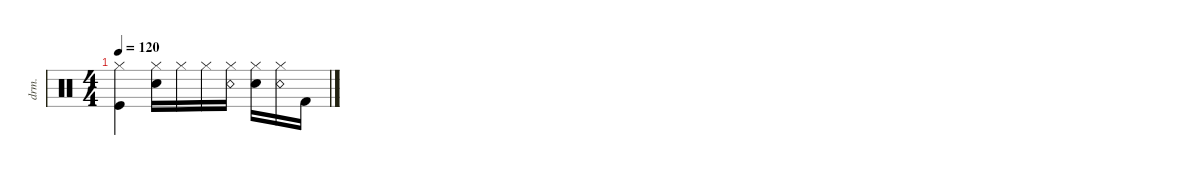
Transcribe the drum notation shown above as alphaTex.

\defaultSystemsLayout 4
\hideDynamics
\bracketExtendMode nobrackets
\otherSystemsTrackNameOrientation horizontal
\track ("Drumkit" "drm.") {mute instrument percussion}
\staff {score}
\articulation defaults
\ts (4 4)
\tempo 120
\clef neutral
\ks c
("Kick (hit)" "Hi-Hat (closed)").4{dy mf} ("Hi-Hat (closed)" "Snare (hit) 2").16 "Hi-Hat (closed)".16 "Hi-Hat (closed)".16 ("Hi-Hat (closed)" "Snare (rim shot)").16 ("Hi-Hat (closed)" "Snare (hit) 2").16 ("Hi-Hat (closed)" "Snare (rim shot)").16 "Kick (hit) 2".16
